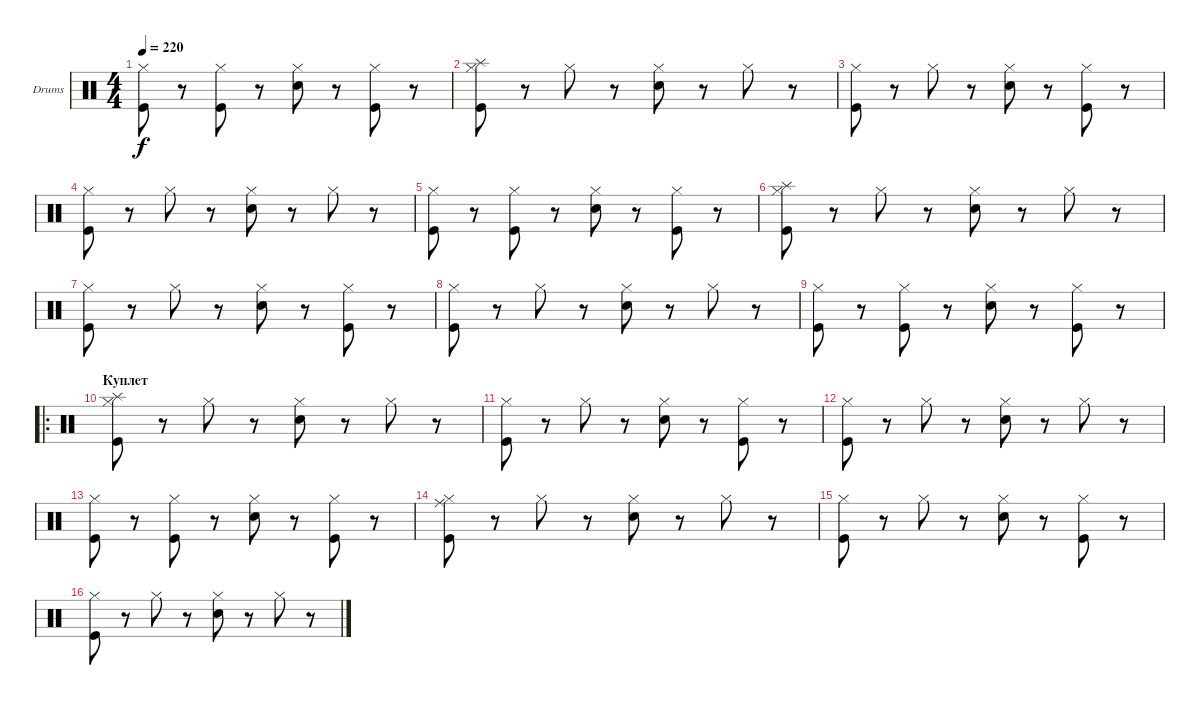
\bracketExtendMode groupsimilarinstruments
\firstSystemTrackNameOrientation horizontal
\otherSystemsTrackNameOrientation horizontal
\track ("Ударные" "Drums") {instrument percussion}
\staff {score}
\articulation defaults
\ts (4 4)
\tempo 220
\clef neutral
\ks c
("Hi-Hat (closed)" "Kick (hit)").8{dy f} r.8 ("Hi-Hat (closed)" "Kick (hit)").8 r.8 ("Hi-Hat (closed)" "Snare (hit) 2").8 r.8 ("Hi-Hat (closed)" "Kick (hit)").8 r.8 |
("Hi-Hat (closed)" "Splash (hit)" "Kick (hit)").8 r.8 "Hi-Hat (closed)".8 r.8 ("Hi-Hat (closed)" "Snare (hit) 2").8 r.8 "Hi-Hat (closed)".8 r.8 |
("Hi-Hat (closed)" "Kick (hit)").8 r.8 "Hi-Hat (closed)".8 r.8 ("Hi-Hat (closed)" "Snare (hit) 2").8 r.8 ("Hi-Hat (closed)" "Kick (hit)").8 r.8 |
("Hi-Hat (closed)" "Kick (hit)").8 r.8 "Hi-Hat (closed)".8 r.8 ("Hi-Hat (closed)" "Snare (hit) 2").8 r.8 "Hi-Hat (closed)".8 r.8 |
("Hi-Hat (closed)" "Kick (hit)").8 r.8 ("Hi-Hat (closed)" "Kick (hit)").8 r.8 ("Hi-Hat (closed)" "Snare (hit) 2").8 r.8 ("Hi-Hat (closed)" "Kick (hit)").8 r.8 |
("Hi-Hat (closed)" "Splash (hit)" "Kick (hit)").8 r.8 "Hi-Hat (closed)".8 r.8 ("Hi-Hat (closed)" "Snare (hit) 2").8 r.8 "Hi-Hat (closed)".8 r.8 |
("Hi-Hat (closed)" "Kick (hit)").8 r.8 "Hi-Hat (closed)".8 r.8 ("Hi-Hat (closed)" "Snare (hit) 2").8 r.8 ("Hi-Hat (closed)" "Kick (hit)").8 r.8 |
("Hi-Hat (closed)" "Kick (hit)").8 r.8 "Hi-Hat (closed)".8 r.8 ("Hi-Hat (closed)" "Snare (hit) 2").8 r.8 "Hi-Hat (closed)".8 r.8 |
("Hi-Hat (closed)" "Kick (hit)").8 r.8 ("Hi-Hat (closed)" "Kick (hit)").8 r.8 ("Hi-Hat (closed)" "Snare (hit) 2").8 r.8 ("Hi-Hat (closed)" "Kick (hit)").8 r.8 |
\ro
\section ("" "Куплет")
("Hi-Hat (closed)" "Splash (hit)" "Kick (hit)").8 r.8 "Hi-Hat (closed)".8 r.8 ("Hi-Hat (closed)" "Snare (hit) 2").8 r.8 "Hi-Hat (closed)".8 r.8 |
("Hi-Hat (closed)" "Kick (hit)").8 r.8 "Hi-Hat (closed)".8 r.8 ("Hi-Hat (closed)" "Snare (hit) 2").8 r.8 ("Hi-Hat (closed)" "Kick (hit)").8 r.8 |
("Hi-Hat (closed)" "Kick (hit)").8 r.8 "Hi-Hat (closed)".8 r.8 ("Hi-Hat (closed)" "Snare (hit) 2").8 r.8 "Hi-Hat (closed)".8 r.8 |
("Hi-Hat (closed)" "Kick (hit)").8 r.8 ("Hi-Hat (closed)" "Kick (hit)").8 r.8 ("Hi-Hat (closed)" "Snare (hit) 2").8 r.8 ("Hi-Hat (closed)" "Kick (hit)").8 r.8 |
("Hi-Hat (closed)" "Ride (middle)" "Kick (hit)").8 r.8 "Hi-Hat (closed)".8 r.8 ("Hi-Hat (closed)" "Snare (hit) 2").8 r.8 "Hi-Hat (closed)".8 r.8 |
("Hi-Hat (closed)" "Kick (hit)").8 r.8 "Hi-Hat (closed)".8 r.8 ("Hi-Hat (closed)" "Snare (hit) 2").8 r.8 ("Hi-Hat (closed)" "Kick (hit)").8 r.8 |
("Hi-Hat (closed)" "Kick (hit)").8 r.8 "Hi-Hat (closed)".8 r.8 ("Hi-Hat (closed)" "Snare (hit) 2").8 r.8 "Hi-Hat (closed)".8 r.8
